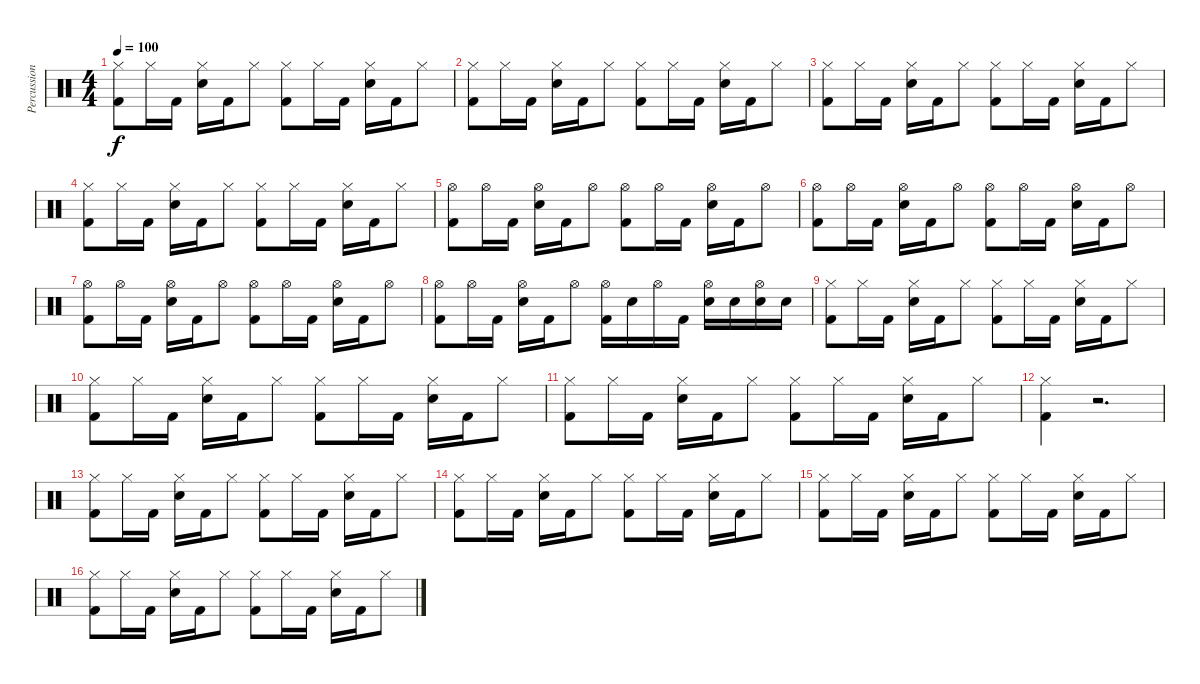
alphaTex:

\track ("Percussions" "Percussion") {instrument percussion}
\staff {score}
\articulation defaults
\ts (4 4)
\tempo 100
\clef neutral
\ks c
("Hi-Hat (closed)" "Kick (hit) 2").8{dy f} "Hi-Hat (closed)".16 "Kick (hit) 2".16 ("Electric Snare (hit)" "Hi-Hat (closed)").16 "Kick (hit) 2".16 "Hi-Hat (closed)".8 ("Hi-Hat (closed)" "Kick (hit) 2").8 "Hi-Hat (closed)".16 "Kick (hit) 2".16 ("Electric Snare (hit)" "Hi-Hat (closed)").16 "Kick (hit) 2".16 "Hi-Hat (closed)".8 |
("Hi-Hat (closed)" "Kick (hit) 2").8 "Hi-Hat (closed)".16 "Kick (hit) 2".16 ("Electric Snare (hit)" "Hi-Hat (closed)").16 "Kick (hit) 2".16 "Hi-Hat (closed)".8 ("Hi-Hat (closed)" "Kick (hit) 2").8 "Hi-Hat (closed)".16 "Kick (hit) 2".16 ("Electric Snare (hit)" "Hi-Hat (closed)").16 "Kick (hit) 2".16 "Hi-Hat (closed)".8 |
("Hi-Hat (closed)" "Kick (hit) 2").8 "Hi-Hat (closed)".16 "Kick (hit) 2".16 ("Electric Snare (hit)" "Hi-Hat (closed)").16 "Kick (hit) 2".16 "Hi-Hat (closed)".8 ("Hi-Hat (closed)" "Kick (hit) 2").8 "Hi-Hat (closed)".16 "Kick (hit) 2".16 ("Electric Snare (hit)" "Hi-Hat (closed)").16 "Kick (hit) 2".16 "Hi-Hat (closed)".8 |
("Hi-Hat (closed)" "Kick (hit) 2").8 "Hi-Hat (closed)".16 "Kick (hit) 2".16 ("Electric Snare (hit)" "Hi-Hat (closed)").16 "Kick (hit) 2".16 "Hi-Hat (closed)".8 ("Hi-Hat (closed)" "Kick (hit) 2").8 "Hi-Hat (closed)".16 "Kick (hit) 2".16 ("Electric Snare (hit)" "Hi-Hat (closed)").16 "Kick (hit) 2".16 "Hi-Hat (closed)".8 |
("Hi-Hat (open)" "Kick (hit) 2").8 "Hi-Hat (open)".16 "Kick (hit) 2".16 ("Electric Snare (hit)" "Hi-Hat (open)").16 "Kick (hit) 2".16 "Hi-Hat (open)".8 ("Hi-Hat (open)" "Kick (hit) 2").8 "Hi-Hat (open)".16 "Kick (hit) 2".16 ("Electric Snare (hit)" "Hi-Hat (open)").16 "Kick (hit) 2".16 "Hi-Hat (open)".8 |
("Hi-Hat (open)" "Kick (hit) 2").8 "Hi-Hat (open)".16 "Kick (hit) 2".16 ("Electric Snare (hit)" "Hi-Hat (open)").16 "Kick (hit) 2".16 "Hi-Hat (open)".8 ("Hi-Hat (open)" "Kick (hit) 2").8 "Hi-Hat (open)".16 "Kick (hit) 2".16 ("Electric Snare (hit)" "Hi-Hat (open)").16 "Kick (hit) 2".16 "Hi-Hat (open)".8 |
("Hi-Hat (open)" "Kick (hit) 2").8 "Hi-Hat (open)".16 "Kick (hit) 2".16 ("Electric Snare (hit)" "Hi-Hat (open)").16 "Kick (hit) 2".16 "Hi-Hat (open)".8 ("Hi-Hat (open)" "Kick (hit) 2").8 "Hi-Hat (open)".16 "Kick (hit) 2".16 ("Electric Snare (hit)" "Hi-Hat (open)").16 "Kick (hit) 2".16 "Hi-Hat (open)".8 |
("Hi-Hat (open)" "Kick (hit) 2").8 "Hi-Hat (open)".16 "Kick (hit) 2".16 ("Electric Snare (hit)" "Hi-Hat (open)").16 "Kick (hit) 2".16 "Hi-Hat (open)".8 ("Hi-Hat (open)" "Kick (hit) 2").16 "Electric Snare (hit)".16 "Hi-Hat (open)".16 "Kick (hit) 2".16 ("Electric Snare (hit)" "Hi-Hat (open)").16 "Electric Snare (hit)".16 ("Electric Snare (hit)" "Hi-Hat (open)").16 "Electric Snare (hit)".16 |
("Hi-Hat (closed)" "Kick (hit) 2").8 "Hi-Hat (closed)".16 "Kick (hit) 2".16 ("Electric Snare (hit)" "Hi-Hat (closed)").16 "Kick (hit) 2".16 "Hi-Hat (closed)".8 ("Hi-Hat (closed)" "Kick (hit) 2").8 "Hi-Hat (closed)".16 "Kick (hit) 2".16 ("Electric Snare (hit)" "Hi-Hat (closed)").16 "Kick (hit) 2".16 "Hi-Hat (closed)".8 |
("Hi-Hat (closed)" "Kick (hit) 2").8 "Hi-Hat (closed)".16 "Kick (hit) 2".16 ("Electric Snare (hit)" "Hi-Hat (closed)").16 "Kick (hit) 2".16 "Hi-Hat (closed)".8 ("Hi-Hat (closed)" "Kick (hit) 2").8 "Hi-Hat (closed)".16 "Kick (hit) 2".16 ("Electric Snare (hit)" "Hi-Hat (closed)").16 "Kick (hit) 2".16 "Hi-Hat (closed)".8 |
("Hi-Hat (closed)" "Kick (hit) 2").8 "Hi-Hat (closed)".16 "Kick (hit) 2".16 ("Electric Snare (hit)" "Hi-Hat (closed)").16 "Kick (hit) 2".16 "Hi-Hat (closed)".8 ("Hi-Hat (closed)" "Kick (hit) 2").8 "Hi-Hat (closed)".16 "Kick (hit) 2".16 ("Electric Snare (hit)" "Hi-Hat (closed)").16 "Kick (hit) 2".16 "Hi-Hat (closed)".8 |
("Hi-Hat (closed)" "Kick (hit) 2").4 r.2{d} |
("Hi-Hat (closed)" "Kick (hit) 2").8 "Hi-Hat (closed)".16 "Kick (hit) 2".16 ("Electric Snare (hit)" "Hi-Hat (closed)").16 "Kick (hit) 2".16 "Hi-Hat (closed)".8 ("Hi-Hat (closed)" "Kick (hit) 2").8 "Hi-Hat (closed)".16 "Kick (hit) 2".16 ("Electric Snare (hit)" "Hi-Hat (closed)").16 "Kick (hit) 2".16 "Hi-Hat (closed)".8 |
("Hi-Hat (closed)" "Kick (hit) 2").8 "Hi-Hat (closed)".16 "Kick (hit) 2".16 ("Electric Snare (hit)" "Hi-Hat (closed)").16 "Kick (hit) 2".16 "Hi-Hat (closed)".8 ("Hi-Hat (closed)" "Kick (hit) 2").8 "Hi-Hat (closed)".16 "Kick (hit) 2".16 ("Electric Snare (hit)" "Hi-Hat (closed)").16 "Kick (hit) 2".16 "Hi-Hat (closed)".8 |
("Hi-Hat (closed)" "Kick (hit) 2").8 "Hi-Hat (closed)".16 "Kick (hit) 2".16 ("Electric Snare (hit)" "Hi-Hat (closed)").16 "Kick (hit) 2".16 "Hi-Hat (closed)".8 ("Hi-Hat (closed)" "Kick (hit) 2").8 "Hi-Hat (closed)".16 "Kick (hit) 2".16 ("Electric Snare (hit)" "Hi-Hat (closed)").16 "Kick (hit) 2".16 "Hi-Hat (closed)".8 |
("Hi-Hat (closed)" "Kick (hit) 2").8 "Hi-Hat (closed)".16 "Kick (hit) 2".16 ("Electric Snare (hit)" "Hi-Hat (closed)").16 "Kick (hit) 2".16 "Hi-Hat (closed)".8 ("Hi-Hat (closed)" "Kick (hit) 2").8 "Hi-Hat (closed)".16 "Kick (hit) 2".16 ("Electric Snare (hit)" "Hi-Hat (closed)").16 "Kick (hit) 2".16 "Hi-Hat (closed)".8
